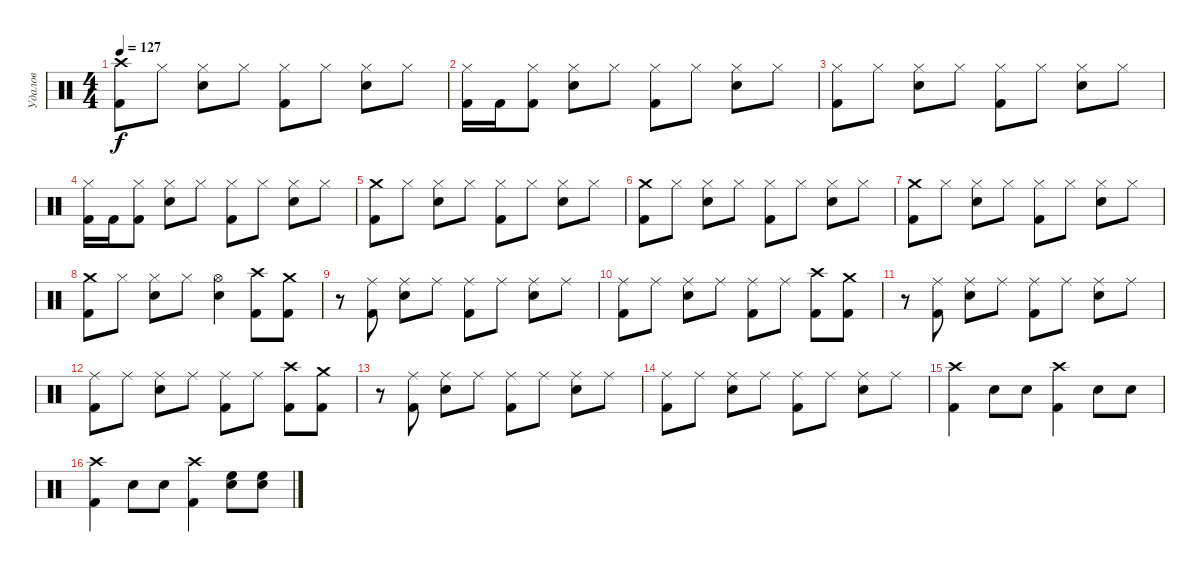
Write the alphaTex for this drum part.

\track ("Удалов" "Удалов") {instrument percussion}
\staff {score}
\articulation defaults
\ts (4 4)
\tempo 127
\clef neutral
\ks c
("Crash high (hit)" "Kick (hit) 2").8{dy f} "Hi-Hat (closed)".8 ("Hi-Hat (closed)" "Snare (hit) 2").8 "Hi-Hat (closed)".8 ("Hi-Hat (closed)" "Kick (hit) 2").8 "Hi-Hat (closed)".8 ("Hi-Hat (closed)" "Snare (hit) 2").8 "Hi-Hat (closed)".8 |
("Hi-Hat (closed)" "Kick (hit) 2").16 "Kick (hit) 2".16 ("Hi-Hat (closed)" "Kick (hit) 2").8 ("Hi-Hat (closed)" "Snare (hit) 2").8 "Hi-Hat (closed)".8 ("Hi-Hat (closed)" "Kick (hit) 2").8 "Hi-Hat (closed)".8 ("Hi-Hat (closed)" "Snare (hit) 2").8 "Hi-Hat (closed)".8 |
("Hi-Hat (closed)" "Kick (hit) 2").8 "Hi-Hat (closed)".8 ("Hi-Hat (closed)" "Snare (hit) 2").8 "Hi-Hat (closed)".8 ("Hi-Hat (closed)" "Kick (hit) 2").8 "Hi-Hat (closed)".8 ("Hi-Hat (closed)" "Snare (hit) 2").8 "Hi-Hat (closed)".8 |
("Hi-Hat (closed)" "Kick (hit) 2").16 "Kick (hit) 2".16 ("Hi-Hat (closed)" "Kick (hit) 2").8 ("Hi-Hat (closed)" "Snare (hit) 2").8 "Hi-Hat (closed)".8 ("Hi-Hat (closed)" "Kick (hit) 2").8 "Hi-Hat (closed)".8 ("Hi-Hat (closed)" "Snare (hit) 2").8 "Hi-Hat (closed)".8 |
("Crash medium (hit)" "Kick (hit) 2").8 "Hi-Hat (closed)".8 ("Hi-Hat (closed)" "Snare (hit) 2").8 "Hi-Hat (closed)".8 ("Hi-Hat (closed)" "Kick (hit) 2").8 "Hi-Hat (closed)".8 ("Hi-Hat (closed)" "Snare (hit) 2").8 "Hi-Hat (closed)".8 |
("Crash medium (hit)" "Kick (hit) 2").8 "Hi-Hat (closed)".8 ("Hi-Hat (closed)" "Snare (hit) 2").8 "Hi-Hat (closed)".8 ("Hi-Hat (closed)" "Kick (hit) 2").8 "Hi-Hat (closed)".8 ("Hi-Hat (closed)" "Snare (hit) 2").8 "Hi-Hat (closed)".8 |
("Crash medium (hit)" "Kick (hit) 2").8 "Hi-Hat (closed)".8 ("Hi-Hat (closed)" "Snare (hit) 2").8 "Hi-Hat (closed)".8 ("Hi-Hat (closed)" "Kick (hit) 2").8 "Hi-Hat (closed)".8 ("Hi-Hat (closed)" "Snare (hit) 2").8 "Hi-Hat (closed)".8 |
("Crash medium (hit)" "Kick (hit) 2").8 "Hi-Hat (closed)".8 ("Hi-Hat (closed)" "Snare (hit) 2").8 "Hi-Hat (closed)".8 ("Hi-Hat (open)" "Snare (hit) 2").4 ("Crash high (hit)" "Kick (hit) 2").8 ("Crash medium (hit)" "Kick (hit) 2").8 |
r.8 ("Ride (middle)" "Kick (hit) 2").8 ("Ride (middle)" "Snare (hit) 2").8 "Ride (middle)".8 ("Ride (middle)" "Kick (hit) 2").8 "Ride (middle)".8 ("Ride (middle)" "Snare (hit) 2").8 "Ride (middle)".8 |
("Ride (middle)" "Kick (hit) 2").8 "Ride (middle)".8 ("Ride (middle)" "Snare (hit) 2").8 "Ride (middle)".8 ("Ride (middle)" "Kick (hit) 2").8 "Ride (middle)".8 ("Crash high (hit)" "Kick (hit) 2").8 ("Crash medium (hit)" "Kick (hit) 2").8 |
r.8 ("Ride (middle)" "Kick (hit) 2").8 ("Ride (middle)" "Snare (hit) 2").8 "Ride (middle)".8 ("Ride (middle)" "Kick (hit) 2").8 "Ride (middle)".8 ("Ride (middle)" "Snare (hit) 2").8 "Ride (middle)".8 |
("Ride (middle)" "Kick (hit) 2").8 "Ride (middle)".8 ("Ride (middle)" "Snare (hit) 2").8 "Ride (middle)".8 ("Ride (middle)" "Kick (hit) 2").8 "Ride (middle)".8 ("Crash high (hit)" "Kick (hit) 2").8 ("Crash medium (hit)" "Kick (hit) 2").8 |
r.8 ("Ride (middle)" "Kick (hit) 2").8 ("Ride (middle)" "Snare (hit) 2").8 "Ride (middle)".8 ("Ride (middle)" "Kick (hit) 2").8 "Ride (middle)".8 ("Ride (middle)" "Snare (hit) 2").8 "Ride (middle)".8 |
("Ride (middle)" "Kick (hit) 2").8 "Ride (middle)".8 ("Ride (middle)" "Snare (hit) 2").8 "Ride (middle)".8 ("Ride (middle)" "Kick (hit) 2").8 "Ride (middle)".8 ("Ride (middle)" "Snare (hit) 2").8 "Ride (middle)".8 |
("Crash high (hit)" "Kick (hit) 2").4 "Snare (hit) 2".8 "Snare (hit) 2".8 ("Crash high (hit)" "Kick (hit) 2").4 "Snare (hit) 2".8 "Snare (hit) 2".8 |
("Crash high (hit)" "Kick (hit) 2").4 "Snare (hit) 2".8 "Snare (hit) 2".8 ("Crash high (hit)" "Kick (hit) 2").4 ("Snare (hit) 2" "High Floor Tom (hit)").8 ("Snare (hit) 2" "High Floor Tom (hit)").8
